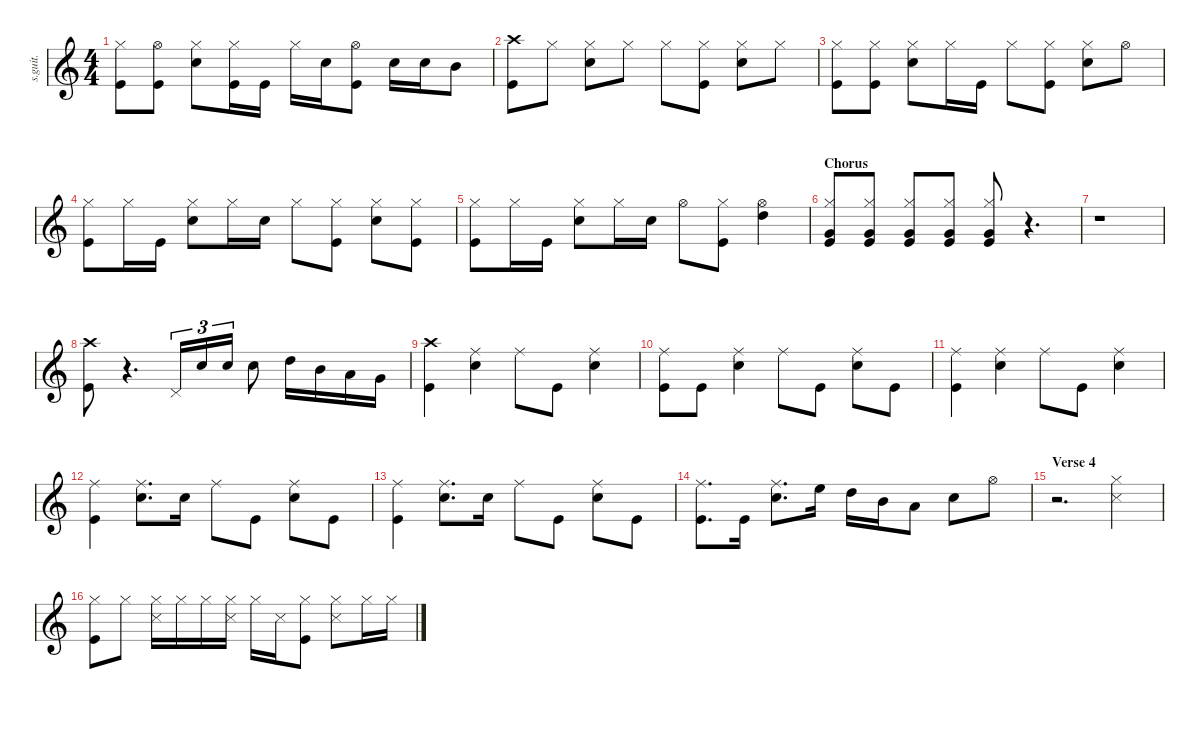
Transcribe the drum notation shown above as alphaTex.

\defaultSystemsLayout 4
\hideDynamics
\bracketExtendMode nobrackets
\track ("Ethan Torchio (Drums)" "s.guit.") {instrument percussion}
\staff {score}
\articulation defaults
\ts (4 4)
\tempo (134 hide)
\clef g2
\ks c
("Kick (hit)" "Hi-Hat (closed)").8{lyrics (0 "") lyrics (1 "") lyrics (2 "") lyrics (3 "") lyrics (4 "") dy ff} ("Hi-Hat (open)" "Kick (hit)").8{lyrics (0 "") lyrics (1 "") lyrics (2 "") lyrics (3 "") lyrics (4 "")} ("Snare (hit) 2" "Hi-Hat (closed)").8{lyrics (0 "") lyrics (1 "") lyrics (2 "") lyrics (3 "") lyrics (4 "")} ("Hi-Hat (closed)" "Kick (hit)").16{lyrics (0 "") lyrics (1 "") lyrics (2 "") lyrics (3 "") lyrics (4 "")} "Kick (hit)".16{lyrics (0 "") lyrics (1 "") lyrics (2 "") lyrics (3 "") lyrics (4 "")} "Hi-Hat (closed)".16{lyrics (0 "") lyrics (1 "") lyrics (2 "") lyrics (3 "") lyrics (4 "")} "Snare (hit) 2".16{lyrics (0 "") lyrics (1 "") lyrics (2 "") lyrics (3 "") lyrics (4 "")} ("Kick (hit)" "Hi-Hat (open)").8{lyrics (0 "") lyrics (1 "") lyrics (2 "") lyrics (3 "") lyrics (4 "")} "Snare (hit) 2".16{lyrics (0 "") lyrics (1 "") lyrics (2 "") lyrics (3 "") lyrics (4 "")} "Snare (hit) 2".16{lyrics (0 "") lyrics (1 "") lyrics (2 "") lyrics (3 "") lyrics (4 "")} "Mid Tom (hit)".8{lyrics (0 "") lyrics (1 "") lyrics (2 "") lyrics (3 "") lyrics (4 "")} |
("Crash high (hit)" "Kick (hit)").8{lyrics (0 "") lyrics (1 "") lyrics (2 "") lyrics (3 "") lyrics (4 "")} "Hi-Hat (closed)".8{lyrics (0 "") lyrics (1 "") lyrics (2 "") lyrics (3 "") lyrics (4 "")} ("Snare (hit) 2" "Hi-Hat (closed)").8{lyrics (0 "") lyrics (1 "") lyrics (2 "") lyrics (3 "") lyrics (4 "")} "Hi-Hat (closed)".8{lyrics (0 "") lyrics (1 "") lyrics (2 "") lyrics (3 "") lyrics (4 "")} "Hi-Hat (closed)".8{lyrics (0 "") lyrics (1 "") lyrics (2 "") lyrics (3 "") lyrics (4 "")} ("Hi-Hat (closed)" "Kick (hit)").8{lyrics (0 "") lyrics (1 "") lyrics (2 "") lyrics (3 "") lyrics (4 "")} ("Hi-Hat (closed)" "Snare (hit) 2").8{lyrics (0 "") lyrics (1 "") lyrics (2 "") lyrics (3 "") lyrics (4 "")} "Hi-Hat (closed)".8{lyrics (0 "") lyrics (1 "") lyrics (2 "") lyrics (3 "") lyrics (4 "")} |
("Hi-Hat (closed)" "Kick (hit)").8{lyrics (0 "") lyrics (1 "") lyrics (2 "") lyrics (3 "") lyrics (4 "")} ("Hi-Hat (closed)" "Kick (hit)").8{lyrics (0 "") lyrics (1 "") lyrics (2 "") lyrics (3 "") lyrics (4 "")} ("Snare (hit) 2" "Hi-Hat (closed)").8{lyrics (0 "") lyrics (1 "") lyrics (2 "") lyrics (3 "") lyrics (4 "")} "Hi-Hat (closed)".16{lyrics (0 "") lyrics (1 "") lyrics (2 "") lyrics (3 "") lyrics (4 "")} "Kick (hit)".16{lyrics (0 "") lyrics (1 "") lyrics (2 "") lyrics (3 "") lyrics (4 "")} "Hi-Hat (closed)".8{lyrics (0 "") lyrics (1 "") lyrics (2 "") lyrics (3 "") lyrics (4 "")} ("Hi-Hat (closed)" "Kick (hit)").8{lyrics (0 "") lyrics (1 "") lyrics (2 "") lyrics (3 "") lyrics (4 "")} ("Hi-Hat (closed)" "Snare (hit) 2").8{lyrics (0 "") lyrics (1 "") lyrics (2 "") lyrics (3 "") lyrics (4 "")} "Hi-Hat (open)".8{lyrics (0 "") lyrics (1 "") lyrics (2 "") lyrics (3 "") lyrics (4 "")} |
("Hi-Hat (closed)" "Kick (hit)").8{lyrics (0 "") lyrics (1 "") lyrics (2 "") lyrics (3 "") lyrics (4 "")} "Hi-Hat (closed)".16{lyrics (0 "") lyrics (1 "") lyrics (2 "") lyrics (3 "") lyrics (4 "")} "Kick (hit)".16{lyrics (0 "") lyrics (1 "") lyrics (2 "") lyrics (3 "") lyrics (4 "")} ("Snare (hit) 2" "Hi-Hat (closed)").8{lyrics (0 "") lyrics (1 "") lyrics (2 "") lyrics (3 "") lyrics (4 "")} "Hi-Hat (closed)".16{lyrics (0 "") lyrics (1 "") lyrics (2 "") lyrics (3 "") lyrics (4 "")} "Snare (hit) 2".16{lyrics (0 "") lyrics (1 "") lyrics (2 "") lyrics (3 "") lyrics (4 "")} "Hi-Hat (closed)".8{lyrics (0 "") lyrics (1 "") lyrics (2 "") lyrics (3 "") lyrics (4 "")} ("Hi-Hat (closed)" "Kick (hit)").8{lyrics (0 "") lyrics (1 "") lyrics (2 "") lyrics (3 "") lyrics (4 "")} ("Hi-Hat (closed)" "Snare (hit) 2").8{lyrics (0 "") lyrics (1 "") lyrics (2 "") lyrics (3 "") lyrics (4 "")} ("Hi-Hat (closed)" "Kick (hit)").8{lyrics (0 "") lyrics (1 "") lyrics (2 "") lyrics (3 "") lyrics (4 "")} |
("Hi-Hat (closed)" "Kick (hit)").8{lyrics (0 "") lyrics (1 "") lyrics (2 "") lyrics (3 "") lyrics (4 "")} "Hi-Hat (closed)".16{lyrics (0 "") lyrics (1 "") lyrics (2 "") lyrics (3 "") lyrics (4 "")} "Kick (hit)".16{lyrics (0 "") lyrics (1 "") lyrics (2 "") lyrics (3 "") lyrics (4 "")} ("Snare (hit) 2" "Hi-Hat (closed)").8{lyrics (0 "") lyrics (1 "") lyrics (2 "") lyrics (3 "") lyrics (4 "")} "Hi-Hat (closed)".16{lyrics (0 "") lyrics (1 "") lyrics (2 "") lyrics (3 "") lyrics (4 "")} "Snare (hit) 2".16{lyrics (0 "") lyrics (1 "") lyrics (2 "") lyrics (3 "") lyrics (4 "")} "Hi-Hat (open)".8{lyrics (0 "") lyrics (1 "") lyrics (2 "") lyrics (3 "") lyrics (4 "")} ("Hi-Hat (closed)" "Kick (hit)").8{lyrics (0 "") lyrics (1 "") lyrics (2 "") lyrics (3 "") lyrics (4 "")} ("High Tom (hit)" "Hi-Hat (open)").4{lyrics (0 "") lyrics (1 "") lyrics (2 "") lyrics (3 "") lyrics (4 "")} |
\section ("" "Chorus")
("Very Low Tom (hit)" "Kick (hit)" "Hi-Hat (closed)").8{lyrics (0 "") lyrics (1 "") lyrics (2 "") lyrics (3 "") lyrics (4 "")} ("Very Low Tom (hit)" "Kick (hit)" "Hi-Hat (closed)").8{lyrics (0 "") lyrics (1 "") lyrics (2 "") lyrics (3 "") lyrics (4 "")} ("Very Low Tom (hit)" "Kick (hit)" "Hi-Hat (closed)").8{lyrics (0 "") lyrics (1 "") lyrics (2 "") lyrics (3 "") lyrics (4 "")} ("Very Low Tom (hit)" "Kick (hit)" "Hi-Hat (closed)").8{lyrics (0 "") lyrics (1 "") lyrics (2 "") lyrics (3 "") lyrics (4 "")} ("Very Low Tom (hit)" "Kick (hit)" "Hi-Hat (closed)").8{lyrics (0 "") lyrics (1 "") lyrics (2 "") lyrics (3 "") lyrics (4 "")} r.4{d} |
r.1 |
("Kick (hit)" "Crash high (hit)").8{lyrics (0 "") lyrics (1 "") lyrics (2 "") lyrics (3 "") lyrics (4 "")} r.4{d} "Pedal Hi-Hat (hit)".16{tu (3 2) lyrics (0 "") lyrics (1 "") lyrics (2 "") lyrics (3 "") lyrics (4 "")} "Snare (hit) 2".16{tu (3 2) lyrics (0 "") lyrics (1 "") lyrics (2 "") lyrics (3 "") lyrics (4 "") dy mp} "Snare (hit) 2".16{tu (3 2) lyrics (0 "") lyrics (1 "") lyrics (2 "") lyrics (3 "") lyrics (4 "") dy mf} "Snare (hit) 2".8{lyrics (0 "") lyrics (1 "") lyrics (2 "") lyrics (3 "") lyrics (4 "") dy ff} "High Tom (hit)".16{lyrics (0 "") lyrics (1 "") lyrics (2 "") lyrics (3 "") lyrics (4 "")} "Mid Tom (hit)".16{lyrics (0 "") lyrics (1 "") lyrics (2 "") lyrics (3 "") lyrics (4 "")} "Low Tom (hit)".16{lyrics (0 "") lyrics (1 "") lyrics (2 "") lyrics (3 "") lyrics (4 "")} "Very Low Tom (hit)".16{lyrics (0 "") lyrics (1 "") lyrics (2 "") lyrics (3 "") lyrics (4 "")} |
("Crash high (hit)" "Kick (hit)").4{lyrics (0 "") lyrics (1 "") lyrics (2 "") lyrics (3 "") lyrics (4 "")} ("Ride (middle)" "Snare (hit) 2").4{lyrics (0 "") lyrics (1 "") lyrics (2 "") lyrics (3 "") lyrics (4 "")} "Ride (middle)".8{lyrics (0 "") lyrics (1 "") lyrics (2 "") lyrics (3 "") lyrics (4 "")} "Kick (hit)".8{lyrics (0 "") lyrics (1 "") lyrics (2 "") lyrics (3 "") lyrics (4 "")} ("Ride (middle)" "Snare (hit) 2").4{lyrics (0 "") lyrics (1 "") lyrics (2 "") lyrics (3 "") lyrics (4 "")} |
("Ride (middle)" "Kick (hit)").8{lyrics (0 "") lyrics (1 "") lyrics (2 "") lyrics (3 "") lyrics (4 "")} "Kick (hit)".8{lyrics (0 "") lyrics (1 "") lyrics (2 "") lyrics (3 "") lyrics (4 "")} ("Snare (hit) 2" "Ride (middle)").4{lyrics (0 "") lyrics (1 "") lyrics (2 "") lyrics (3 "") lyrics (4 "")} "Ride (middle)".8{lyrics (0 "") lyrics (1 "") lyrics (2 "") lyrics (3 "") lyrics (4 "")} "Kick (hit)".8{lyrics (0 "") lyrics (1 "") lyrics (2 "") lyrics (3 "") lyrics (4 "")} ("Snare (hit) 2" "Ride (middle)").8{lyrics (0 "") lyrics (1 "") lyrics (2 "") lyrics (3 "") lyrics (4 "")} "Kick (hit)".8{lyrics (0 "") lyrics (1 "") lyrics (2 "") lyrics (3 "") lyrics (4 "")} |
("Ride (middle)" "Kick (hit)").4{lyrics (0 "") lyrics (1 "") lyrics (2 "") lyrics (3 "") lyrics (4 "")} ("Ride (middle)" "Snare (hit) 2").4{lyrics (0 "") lyrics (1 "") lyrics (2 "") lyrics (3 "") lyrics (4 "")} "Ride (middle)".8{lyrics (0 "") lyrics (1 "") lyrics (2 "") lyrics (3 "") lyrics (4 "")} "Kick (hit)".8{lyrics (0 "") lyrics (1 "") lyrics (2 "") lyrics (3 "") lyrics (4 "")} ("Ride (middle)" "Snare (hit) 2").4{lyrics (0 "") lyrics (1 "") lyrics (2 "") lyrics (3 "") lyrics (4 "")} |
("Ride (middle)" "Kick (hit)").4{lyrics (0 "") lyrics (1 "") lyrics (2 "") lyrics (3 "") lyrics (4 "")} ("Ride (middle)" "Snare (hit) 2").8{d lyrics (0 "") lyrics (1 "") lyrics (2 "") lyrics (3 "") lyrics (4 "")} "Snare (hit) 2".16{lyrics (0 "") lyrics (1 "") lyrics (2 "") lyrics (3 "") lyrics (4 "")} "Ride (middle)".8{lyrics (0 "") lyrics (1 "") lyrics (2 "") lyrics (3 "") lyrics (4 "")} "Kick (hit)".8{lyrics (0 "") lyrics (1 "") lyrics (2 "") lyrics (3 "") lyrics (4 "")} ("Ride (middle)" "Snare (hit) 2").8{lyrics (0 "") lyrics (1 "") lyrics (2 "") lyrics (3 "") lyrics (4 "")} "Kick (hit)".8{lyrics (0 "") lyrics (1 "") lyrics (2 "") lyrics (3 "") lyrics (4 "")} |
("Ride (middle)" "Kick (hit)").4{lyrics (0 "") lyrics (1 "") lyrics (2 "") lyrics (3 "") lyrics (4 "")} ("Ride (middle)" "Snare (hit) 2").8{d lyrics (0 "") lyrics (1 "") lyrics (2 "") lyrics (3 "") lyrics (4 "")} "Snare (hit) 2".16{lyrics (0 "") lyrics (1 "") lyrics (2 "") lyrics (3 "") lyrics (4 "")} "Ride (middle)".8{lyrics (0 "") lyrics (1 "") lyrics (2 "") lyrics (3 "") lyrics (4 "")} "Kick (hit)".8{lyrics (0 "") lyrics (1 "") lyrics (2 "") lyrics (3 "") lyrics (4 "")} ("Ride (middle)" "Snare (hit) 2").8{lyrics (0 "") lyrics (1 "") lyrics (2 "") lyrics (3 "") lyrics (4 "")} "Kick (hit)".8{lyrics (0 "") lyrics (1 "") lyrics (2 "") lyrics (3 "") lyrics (4 "")} |
("Ride (middle)" "Kick (hit)").8{d lyrics (0 "") lyrics (1 "") lyrics (2 "") lyrics (3 "") lyrics (4 "")} "Kick (hit)".16{lyrics (0 "") lyrics (1 "") lyrics (2 "") lyrics (3 "") lyrics (4 "")} ("Snare (hit) 2" "Ride (middle)").8{d lyrics (0 "") lyrics (1 "") lyrics (2 "") lyrics (3 "") lyrics (4 "")} "High Floor Tom (hit)".16{lyrics (0 "") lyrics (1 "") lyrics (2 "") lyrics (3 "") lyrics (4 "")} "High Tom (hit)".16{lyrics (0 "") lyrics (1 "") lyrics (2 "") lyrics (3 "") lyrics (4 "")} "Mid Tom (hit)".16{lyrics (0 "") lyrics (1 "") lyrics (2 "") lyrics (3 "") lyrics (4 "")} "Low Tom (hit)".8{lyrics (0 "") lyrics (1 "") lyrics (2 "") lyrics (3 "") lyrics (4 "")} "Snare (hit) 2".8{lyrics (0 "") lyrics (1 "") lyrics (2 "") lyrics (3 "") lyrics (4 "")} "Hi-Hat (open)".8{lyrics (0 "") lyrics (1 "") lyrics (2 "") lyrics (3 "") lyrics (4 "")} |
\section ("" "Verse 4")
r.2{d} ("Metronome (hit)" "Hi-Hat (closed)").4{lyrics (0 "") lyrics (1 "") lyrics (2 "") lyrics (3 "") lyrics (4 "")} |
("Hi-Hat (closed)" "Kick (hit)").8{lyrics (0 "") lyrics (1 "") lyrics (2 "") lyrics (3 "") lyrics (4 "")} "Hi-Hat (closed)".8{lyrics (0 "") lyrics (1 "") lyrics (2 "") lyrics (3 "") lyrics (4 "")} ("Hi-Hat (closed)" "Metronome (hit)").16{lyrics (0 "") lyrics (1 "") lyrics (2 "") lyrics (3 "") lyrics (4 "")} "Hi-Hat (closed)".16{lyrics (0 "") lyrics (1 "") lyrics (2 "") lyrics (3 "") lyrics (4 "")} "Hi-Hat (closed)".16{lyrics (0 "") lyrics (1 "") lyrics (2 "") lyrics (3 "") lyrics (4 "")} ("Hi-Hat (closed)" "Metronome (hit)").16{lyrics (0 "") lyrics (1 "") lyrics (2 "") lyrics (3 "") lyrics (4 "")} "Hi-Hat (closed)".16{lyrics (0 "") lyrics (1 "") lyrics (2 "") lyrics (3 "") lyrics (4 "")} "Metronome (hit)".16{lyrics (0 "") lyrics (1 "") lyrics (2 "") lyrics (3 "") lyrics (4 "")} ("Kick (hit)" "Hi-Hat (closed)").8{lyrics (0 "") lyrics (1 "") lyrics (2 "") lyrics (3 "") lyrics (4 "")} ("Hi-Hat (closed)" "Metronome (hit)").8{lyrics (0 "") lyrics (1 "") lyrics (2 "") lyrics (3 "") lyrics (4 "")} "Hi-Hat (closed)".16{lyrics (0 "") lyrics (1 "") lyrics (2 "") lyrics (3 "") lyrics (4 "")} "Hi-Hat (closed)".16{lyrics (0 "") lyrics (1 "") lyrics (2 "") lyrics (3 "") lyrics (4 "")}
